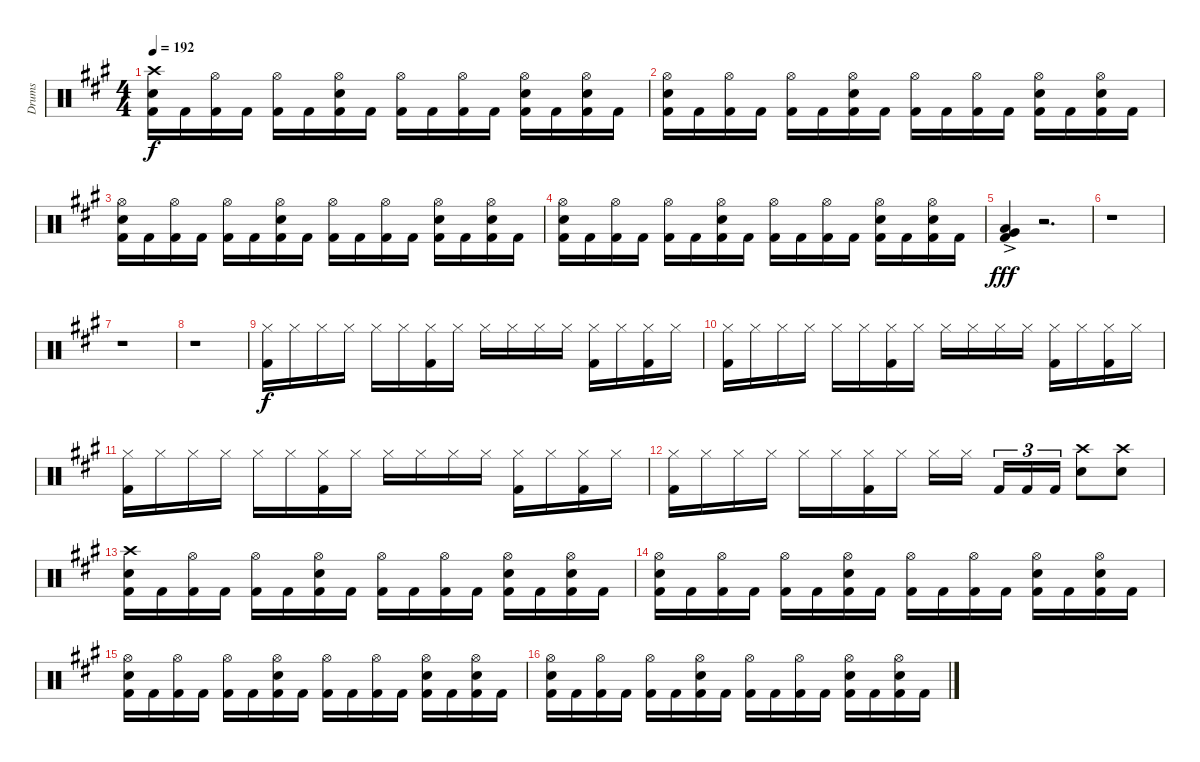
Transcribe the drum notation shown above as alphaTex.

\track ("Drums" "Drums") {instrument percussion}
\staff {score}
\articulation defaults
\ts (4 4)
\tempo 192
\clef neutral
\ks f#minor
("Crash high (hit)" "Snare (hit) 2" "Kick (hit) 2").16{dy f} "Kick (hit) 2".16 ("Hi-Hat (open)" "Kick (hit) 2").16 "Kick (hit) 2".16 ("Hi-Hat (open)" "Kick (hit) 2").16 "Kick (hit) 2".16 ("Hi-Hat (open)" "Snare (hit) 2" "Kick (hit) 2").16 "Kick (hit) 2".16 ("Hi-Hat (open)" "Kick (hit) 2").16 "Kick (hit) 2".16 ("Hi-Hat (open)" "Kick (hit) 2").16 "Kick (hit) 2".16 ("Hi-Hat (open)" "Snare (hit) 2" "Kick (hit) 2").16 "Kick (hit) 2".16 ("Hi-Hat (open)" "Snare (hit) 2" "Kick (hit) 2").16 "Kick (hit) 2".16 |
("Hi-Hat (open)" "Snare (hit) 2" "Kick (hit) 2").16 "Kick (hit) 2".16 ("Hi-Hat (open)" "Kick (hit) 2").16 "Kick (hit) 2".16 ("Hi-Hat (open)" "Kick (hit) 2").16 "Kick (hit) 2".16 ("Hi-Hat (open)" "Snare (hit) 2" "Kick (hit) 2").16 "Kick (hit) 2".16 ("Hi-Hat (open)" "Kick (hit) 2").16 "Kick (hit) 2".16 ("Hi-Hat (open)" "Kick (hit) 2").16 "Kick (hit) 2".16 ("Hi-Hat (open)" "Snare (hit) 2" "Kick (hit) 2").16 "Kick (hit) 2".16 ("Hi-Hat (open)" "Snare (hit) 2" "Kick (hit) 2").16 "Kick (hit) 2".16 |
("Hi-Hat (open)" "Snare (hit) 2" "Kick (hit) 2").16 "Kick (hit) 2".16 ("Hi-Hat (open)" "Kick (hit) 2").16 "Kick (hit) 2".16 ("Hi-Hat (open)" "Kick (hit) 2").16 "Kick (hit) 2".16 ("Hi-Hat (open)" "Snare (hit) 2" "Kick (hit) 2").16 "Kick (hit) 2".16 ("Hi-Hat (open)" "Kick (hit) 2").16 "Kick (hit) 2".16 ("Hi-Hat (open)" "Kick (hit) 2").16 "Kick (hit) 2".16 ("Hi-Hat (open)" "Snare (hit) 2" "Kick (hit) 2").16 "Kick (hit) 2".16 ("Hi-Hat (open)" "Snare (hit) 2" "Kick (hit) 2").16 "Kick (hit) 2".16 |
("Hi-Hat (open)" "Snare (hit) 2" "Kick (hit) 2").16 "Kick (hit) 2".16 ("Hi-Hat (open)" "Kick (hit) 2").16 "Kick (hit) 2".16 ("Hi-Hat (open)" "Kick (hit) 2").16 "Kick (hit) 2".16 ("Hi-Hat (open)" "Snare (hit) 2" "Kick (hit) 2").16 "Kick (hit) 2".16 ("Hi-Hat (open)" "Kick (hit) 2").16 "Kick (hit) 2".16 ("Hi-Hat (open)" "Kick (hit) 2").16 "Kick (hit) 2".16 ("Hi-Hat (open)" "Snare (hit) 2" "Kick (hit) 2").16 "Kick (hit) 2".16 ("Hi-Hat (open)" "Snare (hit) 2" "Kick (hit) 2").16 "Kick (hit) 2".16 |
("Low Tom (hit)"{ac} "Very Low Tom (hit)"{ac} "Kick (hit) 2"{ac}).4{dy fff} r.2{d} |
r.1 |
r.1 |
r.1 |
("Hi-Hat (closed)" "Kick (hit) 2").16{dy f} "Hi-Hat (closed)".16 "Hi-Hat (closed)".16 "Hi-Hat (closed)".16 "Hi-Hat (closed)".16 "Hi-Hat (closed)".16 ("Hi-Hat (closed)" "Kick (hit) 2").16 "Hi-Hat (closed)".16 "Hi-Hat (closed)".16 "Hi-Hat (closed)".16 "Hi-Hat (closed)".16 "Hi-Hat (closed)".16 ("Hi-Hat (closed)" "Kick (hit) 2").16 "Hi-Hat (closed)".16 ("Hi-Hat (closed)" "Kick (hit) 2").16 "Hi-Hat (closed)".16 |
("Hi-Hat (closed)" "Kick (hit) 2").16 "Hi-Hat (closed)".16 "Hi-Hat (closed)".16 "Hi-Hat (closed)".16 "Hi-Hat (closed)".16 "Hi-Hat (closed)".16 ("Hi-Hat (closed)" "Kick (hit) 2").16 "Hi-Hat (closed)".16 "Hi-Hat (closed)".16 "Hi-Hat (closed)".16 "Hi-Hat (closed)".16 "Hi-Hat (closed)".16 ("Hi-Hat (closed)" "Kick (hit) 2").16 "Hi-Hat (closed)".16 ("Hi-Hat (closed)" "Kick (hit) 2").16 "Hi-Hat (closed)".16 |
("Hi-Hat (closed)" "Kick (hit) 2").16 "Hi-Hat (closed)".16 "Hi-Hat (closed)".16 "Hi-Hat (closed)".16 "Hi-Hat (closed)".16 "Hi-Hat (closed)".16 ("Hi-Hat (closed)" "Kick (hit) 2").16 "Hi-Hat (closed)".16 "Hi-Hat (closed)".16 "Hi-Hat (closed)".16 "Hi-Hat (closed)".16 "Hi-Hat (closed)".16 ("Hi-Hat (closed)" "Kick (hit) 2").16 "Hi-Hat (closed)".16 ("Hi-Hat (closed)" "Kick (hit) 2").16 "Hi-Hat (closed)".16 |
("Hi-Hat (closed)" "Kick (hit) 2").16 "Hi-Hat (closed)".16 "Hi-Hat (closed)".16 "Hi-Hat (closed)".16 "Hi-Hat (closed)".16 "Hi-Hat (closed)".16 ("Hi-Hat (closed)" "Kick (hit) 2").16 "Hi-Hat (closed)".16 "Hi-Hat (closed)".16 "Hi-Hat (closed)".16 "Kick (hit) 2".16{tu (3 2)} "Kick (hit) 2".16{tu (3 2)} "Kick (hit) 2".16{tu (3 2)} ("Crash high (hit)" "Snare (hit) 2").8 ("Crash high (hit)" "Snare (hit) 2").8 |
("Crash high (hit)" "Snare (hit) 2" "Kick (hit) 2").16 "Kick (hit) 2".16 ("Hi-Hat (open)" "Kick (hit) 2").16 "Kick (hit) 2".16 ("Hi-Hat (open)" "Kick (hit) 2").16 "Kick (hit) 2".16 ("Hi-Hat (open)" "Snare (hit) 2" "Kick (hit) 2").16 "Kick (hit) 2".16 ("Hi-Hat (open)" "Kick (hit) 2").16 "Kick (hit) 2".16 ("Hi-Hat (open)" "Kick (hit) 2").16 "Kick (hit) 2".16 ("Hi-Hat (open)" "Snare (hit) 2" "Kick (hit) 2").16 "Kick (hit) 2".16 ("Hi-Hat (open)" "Snare (hit) 2" "Kick (hit) 2").16 "Kick (hit) 2".16 |
("Hi-Hat (open)" "Snare (hit) 2" "Kick (hit) 2").16 "Kick (hit) 2".16 ("Hi-Hat (open)" "Kick (hit) 2").16 "Kick (hit) 2".16 ("Hi-Hat (open)" "Kick (hit) 2").16 "Kick (hit) 2".16 ("Hi-Hat (open)" "Snare (hit) 2" "Kick (hit) 2").16 "Kick (hit) 2".16 ("Hi-Hat (open)" "Kick (hit) 2").16 "Kick (hit) 2".16 ("Hi-Hat (open)" "Kick (hit) 2").16 "Kick (hit) 2".16 ("Hi-Hat (open)" "Snare (hit) 2" "Kick (hit) 2").16 "Kick (hit) 2".16 ("Hi-Hat (open)" "Snare (hit) 2" "Kick (hit) 2").16 "Kick (hit) 2".16 |
("Hi-Hat (open)" "Snare (hit) 2" "Kick (hit) 2").16 "Kick (hit) 2".16 ("Hi-Hat (open)" "Kick (hit) 2").16 "Kick (hit) 2".16 ("Hi-Hat (open)" "Kick (hit) 2").16 "Kick (hit) 2".16 ("Hi-Hat (open)" "Snare (hit) 2" "Kick (hit) 2").16 "Kick (hit) 2".16 ("Hi-Hat (open)" "Kick (hit) 2").16 "Kick (hit) 2".16 ("Hi-Hat (open)" "Kick (hit) 2").16 "Kick (hit) 2".16 ("Hi-Hat (open)" "Snare (hit) 2" "Kick (hit) 2").16 "Kick (hit) 2".16 ("Hi-Hat (open)" "Snare (hit) 2" "Kick (hit) 2").16 "Kick (hit) 2".16 |
("Hi-Hat (open)" "Snare (hit) 2" "Kick (hit) 2").16 "Kick (hit) 2".16 ("Hi-Hat (open)" "Kick (hit) 2").16 "Kick (hit) 2".16 ("Hi-Hat (open)" "Kick (hit) 2").16 "Kick (hit) 2".16 ("Hi-Hat (open)" "Snare (hit) 2" "Kick (hit) 2").16 "Kick (hit) 2".16 ("Hi-Hat (open)" "Kick (hit) 2").16 "Kick (hit) 2".16 ("Hi-Hat (open)" "Kick (hit) 2").16 "Kick (hit) 2".16 ("Hi-Hat (open)" "Snare (hit) 2" "Kick (hit) 2").16 "Kick (hit) 2".16 ("Hi-Hat (open)" "Snare (hit) 2" "Kick (hit) 2").16 "Kick (hit) 2".16
